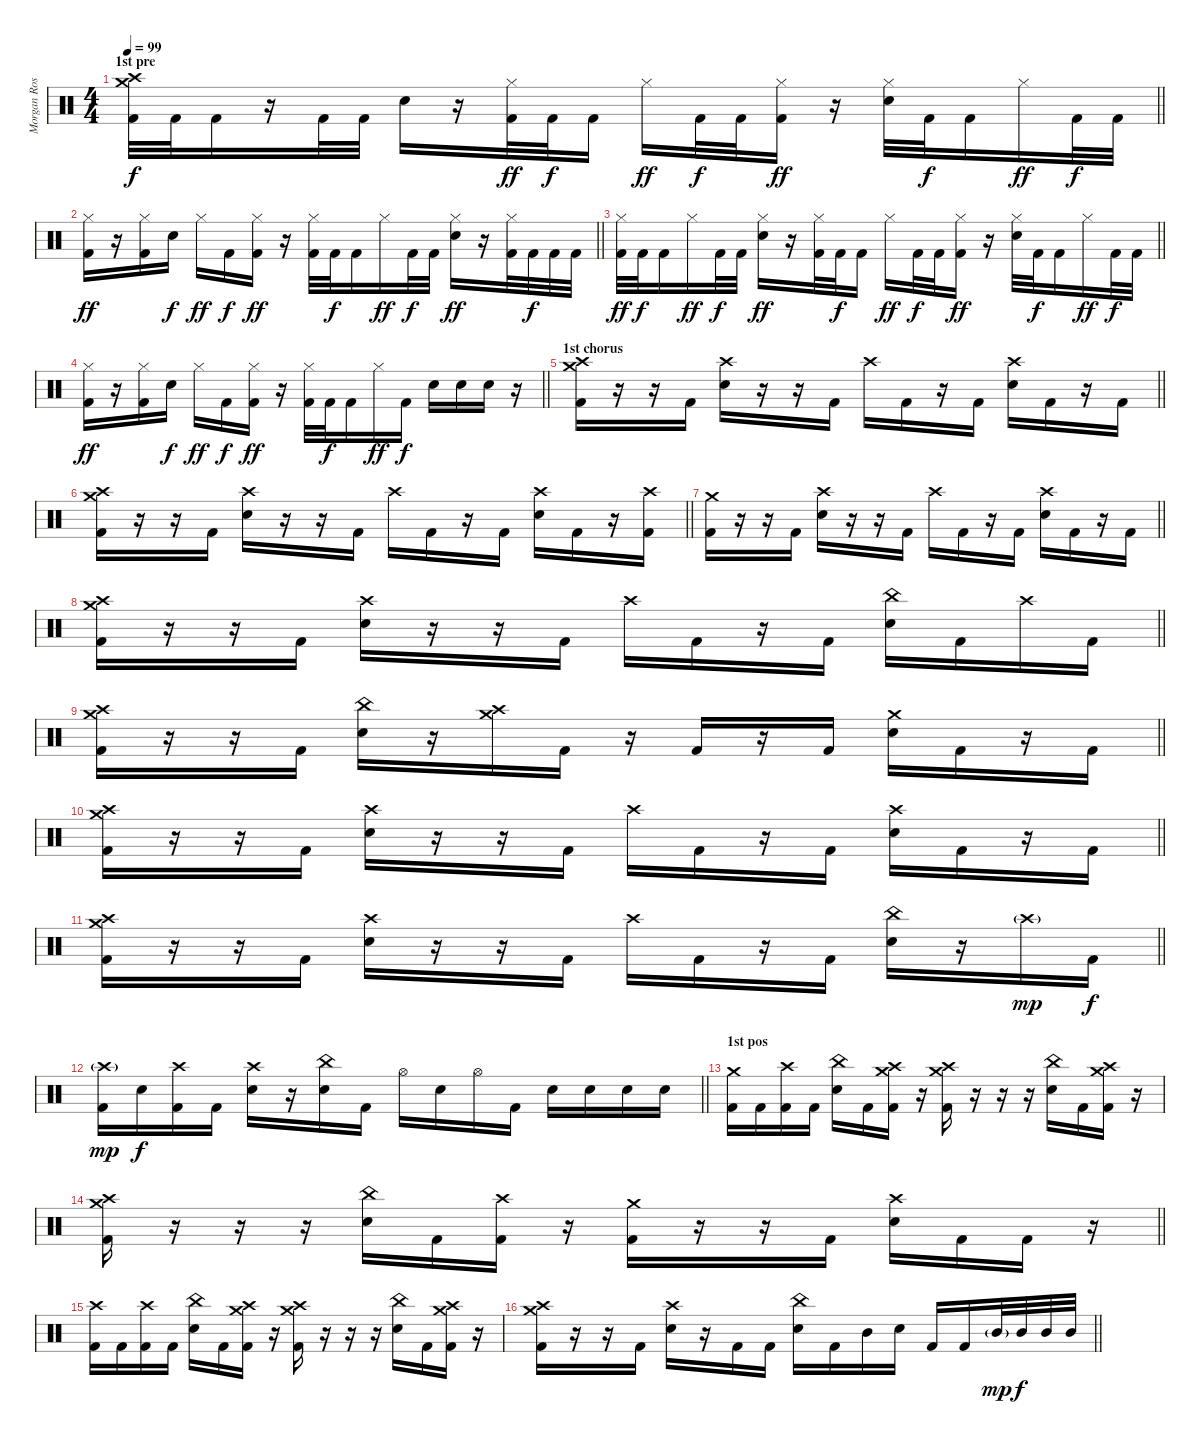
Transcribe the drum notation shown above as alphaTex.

\track ("Morgan Rose" "Morgan Ros") {instrument percussion}
\staff {score}
\articulation defaults
\ts (4 4)
\section ("" "1st pre")
\tempo 99
\clef neutral
\barLineRight lightlight
\ks c
("Crash medium (hit)" "Crash high (hit)" "Kick (hit) 2").32{dy f} "Kick (hit) 2".32 "Kick (hit) 2".16 r.16 "Kick (hit) 2".32 "Kick (hit) 2".32 "Snare (hit) 2".16 r.16 ("Hi-Hat (closed)" "Kick (hit) 2").32{dy ff} "Kick (hit) 2".32{dy f} "Kick (hit) 2".16 "Hi-Hat (closed)".16{dy ff} "Kick (hit) 2".32{dy f} "Kick (hit) 2".32 ("Hi-Hat (closed)" "Kick (hit) 2").16{dy ff} r.16 ("Hi-Hat (closed)" "Snare (hit) 2").32 "Kick (hit) 2".32{dy f} "Kick (hit) 2".16 "Hi-Hat (closed)".16{dy ff} "Kick (hit) 2".32{dy f} "Kick (hit) 2".32 |
\barLineRight lightlight
("Hi-Hat (closed)" "Kick (hit) 2").16{dy ff} r.16 ("Hi-Hat (closed)" "Kick (hit) 2").16 "Snare (hit) 2".16{dy f} "Hi-Hat (closed)".16{dy ff} "Kick (hit) 2".16{dy f} ("Hi-Hat (closed)" "Kick (hit) 2").16{dy ff} r.16 ("Hi-Hat (closed)" "Kick (hit) 2").32 "Kick (hit) 2".32{dy f} "Kick (hit) 2".16 "Hi-Hat (closed)".16{dy ff} "Kick (hit) 2".32{dy f} "Kick (hit) 2".32 ("Hi-Hat (closed)" "Snare (hit) 2").16{dy ff} r.16 ("Hi-Hat (closed)" "Kick (hit) 2").32 "Kick (hit) 2".32{dy f} "Kick (hit) 2".32 "Kick (hit) 2".32 |
\barLineRight lightlight
("Hi-Hat (closed)" "Kick (hit) 2").32{dy ff} "Kick (hit) 2".32{dy f} "Kick (hit) 2".16 "Hi-Hat (closed)".16{dy ff} "Kick (hit) 2".32{dy f} "Kick (hit) 2".32 ("Hi-Hat (closed)" "Snare (hit) 2").16{dy ff} r.16 ("Hi-Hat (closed)" "Kick (hit) 2").32 "Kick (hit) 2".32{dy f} "Kick (hit) 2".16 "Hi-Hat (closed)".16{dy ff} "Kick (hit) 2".32{dy f} "Kick (hit) 2".32 ("Hi-Hat (closed)" "Kick (hit) 2").16{dy ff} r.16 ("Hi-Hat (closed)" "Snare (hit) 2").32 "Kick (hit) 2".32{dy f} "Kick (hit) 2".16 "Hi-Hat (closed)".16{dy ff} "Kick (hit) 2".32{dy f} "Kick (hit) 2".32 |
\barLineRight lightlight
("Hi-Hat (closed)" "Kick (hit) 2").16{dy ff} r.16 ("Hi-Hat (closed)" "Kick (hit) 2").16 "Snare (hit) 2".16{dy f} "Hi-Hat (closed)".16{dy ff} "Kick (hit) 2".16{dy f} ("Hi-Hat (closed)" "Kick (hit) 2").16{dy ff} r.16 ("Hi-Hat (closed)" "Kick (hit) 2").32 "Kick (hit) 2".32{dy f} "Kick (hit) 2".16 "Hi-Hat (closed)".16{dy ff} "Kick (hit) 2".16{dy f} "Snare (hit) 2".16 "Snare (hit) 2".16 "Snare (hit) 2".16 r.16 |
\section ("" "1st chorus")
\barLineRight lightlight
("Crash medium (hit)" "Crash high (hit)" "Kick (hit) 2").16 r.16 r.16 "Kick (hit) 2".16 ("Crash high (hit)" "Snare (hit) 2").16 r.16 r.16 "Kick (hit) 2".16 "Crash high (hit)".16 "Kick (hit) 2".16 r.16 "Kick (hit) 2".16 ("Crash high (hit)" "Snare (hit) 2").16 "Kick (hit) 2".16 r.16 "Kick (hit) 2".16 |
\barLineRight lightlight
("Crash medium (hit)" "Crash high (hit)" "Kick (hit) 2").16 r.16 r.16 "Kick (hit) 2".16 ("Crash high (hit)" "Snare (hit) 2").16 r.16 r.16 "Kick (hit) 2".16 "Crash high (hit)".16 "Kick (hit) 2".16 r.16 "Kick (hit) 2".16 ("Crash high (hit)" "Snare (hit) 2").16 "Kick (hit) 2".16 r.16 ("Crash high (hit)" "Kick (hit) 2").16 |
\barLineRight lightlight
("Crash medium (hit)" "Kick (hit) 2").16 r.16 r.16 "Kick (hit) 2".16 ("Crash high (hit)" "Snare (hit) 2").16 r.16 r.16 "Kick (hit) 2".16 "Crash high (hit)".16 "Kick (hit) 2".16 r.16 "Kick (hit) 2".16 ("Crash high (hit)" "Snare (hit) 2").16 "Kick (hit) 2".16 r.16 "Kick (hit) 2".16 |
\barLineRight lightlight
("Crash medium (hit)" "Crash high (hit)" "Kick (hit) 2").16 r.16 r.16 "Kick (hit) 2".16 ("Crash high (hit)" "Snare (hit) 2").16 r.16 r.16 "Kick (hit) 2".16 "Crash high (hit)".16 "Kick (hit) 2".16 r.16 "Kick (hit) 2".16 ("China (hit)" "Snare (hit) 2").16 "Kick (hit) 2".16 "Crash high (hit)".16 "Kick (hit) 2".16 |
\barLineRight lightlight
("Crash medium (hit)" "Crash high (hit)" "Kick (hit) 2").16 r.16 r.16 "Kick (hit) 2".16 ("China (hit)" "Snare (hit) 2").16 r.16 ("Crash medium (hit)" "Crash high (hit)").16 "Kick (hit) 2".16 r.16 "Kick (hit) 2".16 r.16 "Kick (hit) 2".16 ("Crash medium (hit)" "Snare (hit) 2").16 "Kick (hit) 2".16 r.16 "Kick (hit) 2".16 |
\barLineRight lightlight
("Crash medium (hit)" "Crash high (hit)" "Kick (hit) 2").16 r.16 r.16 "Kick (hit) 2".16 ("Crash high (hit)" "Snare (hit) 2").16 r.16 r.16 "Kick (hit) 2".16 "Crash high (hit)".16 "Kick (hit) 2".16 r.16 "Kick (hit) 2".16 ("Crash high (hit)" "Snare (hit) 2").16 "Kick (hit) 2".16 r.16 "Kick (hit) 2".16 |
\barLineRight lightlight
("Crash medium (hit)" "Crash high (hit)" "Kick (hit) 2").16 r.16 r.16 "Kick (hit) 2".16 ("Crash high (hit)" "Snare (hit) 2").16 r.16 r.16 "Kick (hit) 2".16 "Crash high (hit)".16 "Kick (hit) 2".16 r.16 "Kick (hit) 2".16 ("China (hit)" "Snare (hit) 2").16 r.16 "Crash high (hit)"{g}.16{dy mp} "Kick (hit) 2".16{dy f} |
\barLineRight lightlight
("Crash high (hit)"{g} "Kick (hit) 2").16{dy mp} "Snare (hit) 2".16{dy f} ("Crash high (hit)" "Kick (hit) 2").16 "Kick (hit) 2".16 ("Crash high (hit)" "Snare (hit) 2").16 r.16 ("China (hit)" "Snare (hit) 2").16 "Kick (hit) 2".16 "Hi-Hat (open)".16 "Snare (hit) 2".16 "Hi-Hat (open)".16 "Kick (hit) 2".16 "Snare (hit) 2".16 "Snare (hit) 2".16 "Snare (hit) 2".16 "Snare (hit) 2".16 |
\section ("" "1st pos")
("Crash medium (hit)" "Kick (hit) 2").16 "Kick (hit) 2".16 ("Crash high (hit)" "Kick (hit) 2").16 "Kick (hit) 2".16 ("China (hit)" "Snare (hit) 2").16 "Kick (hit) 2".16 ("Crash medium (hit)" "Crash high (hit)" "Kick (hit) 2").16 r.16 ("Crash medium (hit)" "Crash high (hit)" "Kick (hit) 2").16 r.16 r.16 r.16 ("China (hit)" "Snare (hit) 2").16 "Kick (hit) 2".16 ("Crash medium (hit)" "Crash high (hit)" "Kick (hit) 2").16 r.16 |
\barLineRight lightlight
("Crash medium (hit)" "Crash high (hit)" "Kick (hit) 2").16 r.16 r.16 r.16 ("China (hit)" "Snare (hit) 2").16 "Kick (hit) 2".16 ("Crash high (hit)" "Kick (hit) 2").16 r.16 ("Crash medium (hit)" "Kick (hit) 2").16 r.16 r.16 "Kick (hit) 2".16 ("Crash high (hit)" "Snare (hit) 2").16 "Kick (hit) 2".16 "Kick (hit) 2".16 r.16 |
("Crash high (hit)" "Kick (hit) 2").16 "Kick (hit) 2".16 ("Crash high (hit)" "Kick (hit) 2").16 "Kick (hit) 2".16 ("China (hit)" "Snare (hit) 2").16 "Kick (hit) 2".16 ("Crash medium (hit)" "Crash high (hit)" "Kick (hit) 2").16 r.16 ("Crash medium (hit)" "Crash high (hit)" "Kick (hit) 2").16 r.16 r.16 r.16 ("China (hit)" "Snare (hit) 2").16 "Kick (hit) 2".16 ("Crash medium (hit)" "Crash high (hit)" "Kick (hit) 2").16 r.16 |
\barLineRight lightlight
("Crash medium (hit)" "Crash high (hit)" "Kick (hit) 2").16 r.16 r.16 "Kick (hit) 2".16 ("Crash high (hit)" "Snare (hit) 2").16 r.16 "Kick (hit) 2".16 "Kick (hit) 2".16 ("China (hit)" "Snare (hit) 2").16 "Kick (hit) 2".16 "Mid Tom (hit)".16 "Snare (hit) 2".16 "Kick (hit) 2".16 "Kick (hit) 2".16 "Mid Tom (hit)"{g}.32{dy mp} "Mid Tom (hit)".32{dy f} "Mid Tom (hit)".32 "Mid Tom (hit)".32
